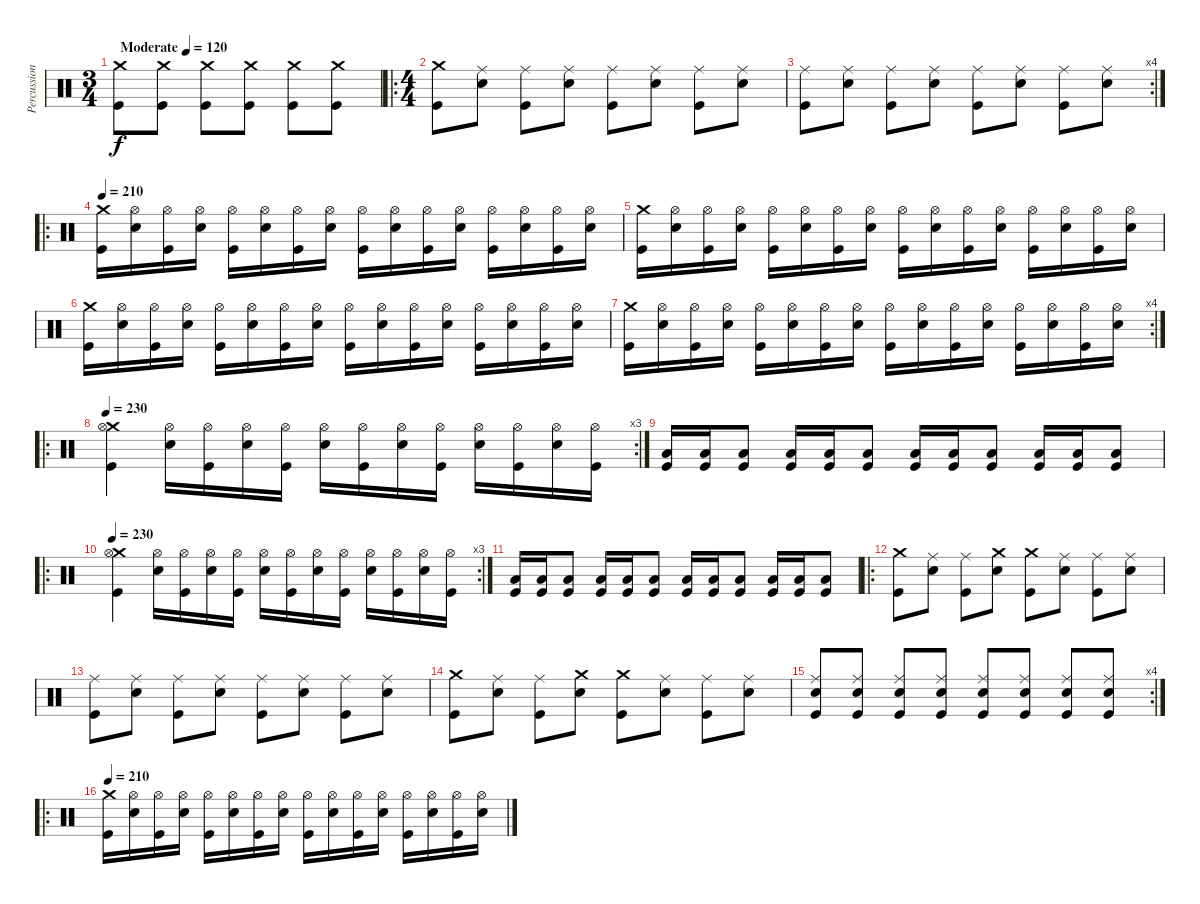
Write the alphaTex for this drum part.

\track ("Percussion" "Percussion") {instrument percussion}
\staff {score}
\articulation defaults
\ts (3 4)
\tempo (120 "Moderate")
\tempo 170
\tempo (120 "Moderate")
\clef neutral
\ks c
("Crash medium (hit)" "Kick (hit)").8{dy f} ("Crash medium (hit)" "Kick (hit)").8 ("Crash medium (hit)" "Kick (hit)").8 ("Crash medium (hit)" "Kick (hit)").8 ("Crash medium (hit)" "Kick (hit)").8 ("Crash medium (hit)" "Kick (hit)").8 |
\ro
\ts (4 4)
("Crash medium (hit)" "Kick (hit)").8 ("Ride (middle)" "Electric Snare (hit)").8 ("Ride (middle)" "Kick (hit)").8 ("Ride (middle)" "Electric Snare (hit)").8 ("Ride (middle)" "Kick (hit)").8 ("Ride (middle)" "Electric Snare (hit)").8 ("Ride (middle)" "Kick (hit)").8 ("Ride (middle)" "Electric Snare (hit)").8 |
\rc 4
("Ride (middle)" "Kick (hit)").8 ("Ride (middle)" "Electric Snare (hit)").8 ("Ride (middle)" "Kick (hit)").8 ("Ride (middle)" "Electric Snare (hit)").8 ("Ride (middle)" "Kick (hit)").8 ("Ride (middle)" "Electric Snare (hit)").8 ("Ride (middle)" "Kick (hit)").8 ("Ride (middle)" "Electric Snare (hit)").8 |
\ro
\tempo 210
("Crash medium (hit)" "Kick (hit)").16 ("Hi-Hat (open)" "Electric Snare (hit)").16 ("Hi-Hat (open)" "Kick (hit)").16 ("Hi-Hat (open)" "Electric Snare (hit)").16 ("Hi-Hat (open)" "Kick (hit)").16 ("Hi-Hat (open)" "Electric Snare (hit)").16 ("Hi-Hat (open)" "Kick (hit)").16 ("Hi-Hat (open)" "Electric Snare (hit)").16 ("Hi-Hat (open)" "Kick (hit)").16 ("Hi-Hat (open)" "Electric Snare (hit)").16 ("Hi-Hat (open)" "Kick (hit)").16 ("Hi-Hat (open)" "Electric Snare (hit)").16 ("Hi-Hat (open)" "Kick (hit)").16 ("Hi-Hat (open)" "Electric Snare (hit)").16 ("Hi-Hat (open)" "Kick (hit)").16 ("Hi-Hat (open)" "Electric Snare (hit)").16 |
("Crash medium (hit)" "Kick (hit)").16 ("Hi-Hat (open)" "Electric Snare (hit)").16 ("Hi-Hat (open)" "Kick (hit)").16 ("Hi-Hat (open)" "Electric Snare (hit)").16 ("Hi-Hat (open)" "Kick (hit)").16 ("Hi-Hat (open)" "Electric Snare (hit)").16 ("Hi-Hat (open)" "Kick (hit)").16 ("Hi-Hat (open)" "Electric Snare (hit)").16 ("Hi-Hat (open)" "Kick (hit)").16 ("Hi-Hat (open)" "Electric Snare (hit)").16 ("Hi-Hat (open)" "Kick (hit)").16 ("Hi-Hat (open)" "Electric Snare (hit)").16 ("Hi-Hat (open)" "Kick (hit)").16 ("Hi-Hat (open)" "Electric Snare (hit)").16 ("Hi-Hat (open)" "Kick (hit)").16 ("Hi-Hat (open)" "Electric Snare (hit)").16 |
("Crash medium (hit)" "Kick (hit)").16 ("Hi-Hat (open)" "Electric Snare (hit)").16 ("Hi-Hat (open)" "Kick (hit)").16 ("Hi-Hat (open)" "Electric Snare (hit)").16 ("Hi-Hat (open)" "Kick (hit)").16 ("Hi-Hat (open)" "Electric Snare (hit)").16 ("Hi-Hat (open)" "Kick (hit)").16 ("Hi-Hat (open)" "Electric Snare (hit)").16 ("Hi-Hat (open)" "Kick (hit)").16 ("Hi-Hat (open)" "Electric Snare (hit)").16 ("Hi-Hat (open)" "Kick (hit)").16 ("Hi-Hat (open)" "Electric Snare (hit)").16 ("Hi-Hat (open)" "Kick (hit)").16 ("Hi-Hat (open)" "Electric Snare (hit)").16 ("Hi-Hat (open)" "Kick (hit)").16 ("Hi-Hat (open)" "Electric Snare (hit)").16 |
\rc 4
("Crash medium (hit)" "Kick (hit)").16 ("Hi-Hat (open)" "Electric Snare (hit)").16 ("Hi-Hat (open)" "Kick (hit)").16 ("Hi-Hat (open)" "Electric Snare (hit)").16 ("Hi-Hat (open)" "Kick (hit)").16 ("Hi-Hat (open)" "Electric Snare (hit)").16 ("Hi-Hat (open)" "Kick (hit)").16 ("Hi-Hat (open)" "Electric Snare (hit)").16 ("Hi-Hat (open)" "Kick (hit)").16 ("Hi-Hat (open)" "Electric Snare (hit)").16 ("Hi-Hat (open)" "Kick (hit)").16 ("Hi-Hat (open)" "Electric Snare (hit)").16 ("Hi-Hat (open)" "Kick (hit)").16 ("Hi-Hat (open)" "Electric Snare (hit)").16 ("Hi-Hat (open)" "Kick (hit)").16 ("Hi-Hat (open)" "Electric Snare (hit)").16 |
\ro
\rc 3
\tempo 230
("Crash medium (hit)" "Hi-Hat (open)" "Kick (hit)").4 ("Hi-Hat (open)" "Electric Snare (hit)").16 ("Hi-Hat (open)" "Kick (hit)").16 ("Hi-Hat (open)" "Electric Snare (hit)").16 ("Hi-Hat (open)" "Kick (hit)").16 ("Hi-Hat (open)" "Electric Snare (hit)").16 ("Hi-Hat (open)" "Kick (hit)").16 ("Hi-Hat (open)" "Electric Snare (hit)").16 ("Hi-Hat (open)" "Kick (hit)").16 ("Hi-Hat (open)" "Electric Snare (hit)").16 ("Hi-Hat (open)" "Kick (hit)").16 ("Hi-Hat (open)" "Electric Snare (hit)").16 ("Hi-Hat (open)" "Kick (hit)").16 |
("Kick (hit)" "Low Floor Tom (hit)").16 ("Kick (hit)" "Low Floor Tom (hit)").16 ("Kick (hit)" "Low Floor Tom (hit)").8 ("Kick (hit)" "Low Floor Tom (hit)").16 ("Kick (hit)" "Low Floor Tom (hit)").16 ("Kick (hit)" "Low Floor Tom (hit)").8 ("Kick (hit)" "Low Floor Tom (hit)").16 ("Kick (hit)" "Low Floor Tom (hit)").16 ("Kick (hit)" "Low Floor Tom (hit)").8 ("Kick (hit)" "Low Floor Tom (hit)").16 ("Kick (hit)" "Low Floor Tom (hit)").16 ("Kick (hit)" "Low Floor Tom (hit)").8 |
\ro
\rc 3
\tempo 230
("Crash medium (hit)" "Hi-Hat (open)" "Kick (hit)").4 ("Hi-Hat (open)" "Electric Snare (hit)").16 ("Hi-Hat (open)" "Kick (hit)").16 ("Hi-Hat (open)" "Electric Snare (hit)").16 ("Hi-Hat (open)" "Kick (hit)").16 ("Hi-Hat (open)" "Electric Snare (hit)").16 ("Hi-Hat (open)" "Kick (hit)").16 ("Hi-Hat (open)" "Electric Snare (hit)").16 ("Hi-Hat (open)" "Kick (hit)").16 ("Hi-Hat (open)" "Electric Snare (hit)").16 ("Hi-Hat (open)" "Kick (hit)").16 ("Hi-Hat (open)" "Electric Snare (hit)").16 ("Hi-Hat (open)" "Kick (hit)").16 |
("Kick (hit)" "Low Floor Tom (hit)").16 ("Kick (hit)" "Low Floor Tom (hit)").16 ("Kick (hit)" "Low Floor Tom (hit)").8 ("Kick (hit)" "Low Floor Tom (hit)").16 ("Kick (hit)" "Low Floor Tom (hit)").16 ("Kick (hit)" "Low Floor Tom (hit)").8 ("Kick (hit)" "Low Floor Tom (hit)").16 ("Kick (hit)" "Low Floor Tom (hit)").16 ("Kick (hit)" "Low Floor Tom (hit)").8 ("Kick (hit)" "Low Floor Tom (hit)").16 ("Kick (hit)" "Low Floor Tom (hit)").16 ("Kick (hit)" "Low Floor Tom (hit)").8 |
\ro
("Crash medium (hit)" "Kick (hit)").8 ("Ride (middle)" "Electric Snare (hit)").8 ("Ride (middle)" "Kick (hit)").8 ("Crash medium (hit)" "Electric Snare (hit)").8 ("Crash medium (hit)" "Kick (hit)").8 ("Ride (middle)" "Electric Snare (hit)").8 ("Ride (middle)" "Kick (hit)").8 ("Ride (middle)" "Electric Snare (hit)").8 |
("Ride (middle)" "Kick (hit)").8 ("Ride (middle)" "Electric Snare (hit)").8 ("Ride (middle)" "Kick (hit)").8 ("Ride (middle)" "Electric Snare (hit)").8 ("Ride (middle)" "Kick (hit)").8 ("Ride (middle)" "Electric Snare (hit)").8 ("Ride (middle)" "Kick (hit)").8 ("Ride (middle)" "Electric Snare (hit)").8 |
("Crash medium (hit)" "Kick (hit)").8 ("Ride (middle)" "Electric Snare (hit)").8 ("Ride (middle)" "Kick (hit)").8 ("Crash medium (hit)" "Electric Snare (hit)").8 ("Crash medium (hit)" "Kick (hit)").8 ("Ride (middle)" "Electric Snare (hit)").8 ("Ride (middle)" "Kick (hit)").8 ("Ride (middle)" "Electric Snare (hit)").8 |
\rc 4
("Ride (middle)" "Electric Snare (hit)" "Kick (hit)").8 ("Ride (middle)" "Electric Snare (hit)" "Kick (hit)").8 ("Ride (middle)" "Electric Snare (hit)" "Kick (hit)").8 ("Ride (middle)" "Electric Snare (hit)" "Kick (hit)").8 ("Ride (middle)" "Electric Snare (hit)" "Kick (hit)").8 ("Ride (middle)" "Electric Snare (hit)" "Kick (hit)").8 ("Ride (middle)" "Electric Snare (hit)" "Kick (hit)").8 ("Ride (middle)" "Electric Snare (hit)" "Kick (hit)").8 |
\ro
\tempo 210
("Crash medium (hit)" "Kick (hit)").16 ("Hi-Hat (open)" "Electric Snare (hit)").16 ("Hi-Hat (open)" "Kick (hit)").16 ("Hi-Hat (open)" "Electric Snare (hit)").16 ("Hi-Hat (open)" "Kick (hit)").16 ("Hi-Hat (open)" "Electric Snare (hit)").16 ("Hi-Hat (open)" "Kick (hit)").16 ("Hi-Hat (open)" "Electric Snare (hit)").16 ("Hi-Hat (open)" "Kick (hit)").16 ("Hi-Hat (open)" "Electric Snare (hit)").16 ("Hi-Hat (open)" "Kick (hit)").16 ("Hi-Hat (open)" "Electric Snare (hit)").16 ("Hi-Hat (open)" "Kick (hit)").16 ("Hi-Hat (open)" "Electric Snare (hit)").16 ("Hi-Hat (open)" "Kick (hit)").16 ("Hi-Hat (open)" "Electric Snare (hit)").16
